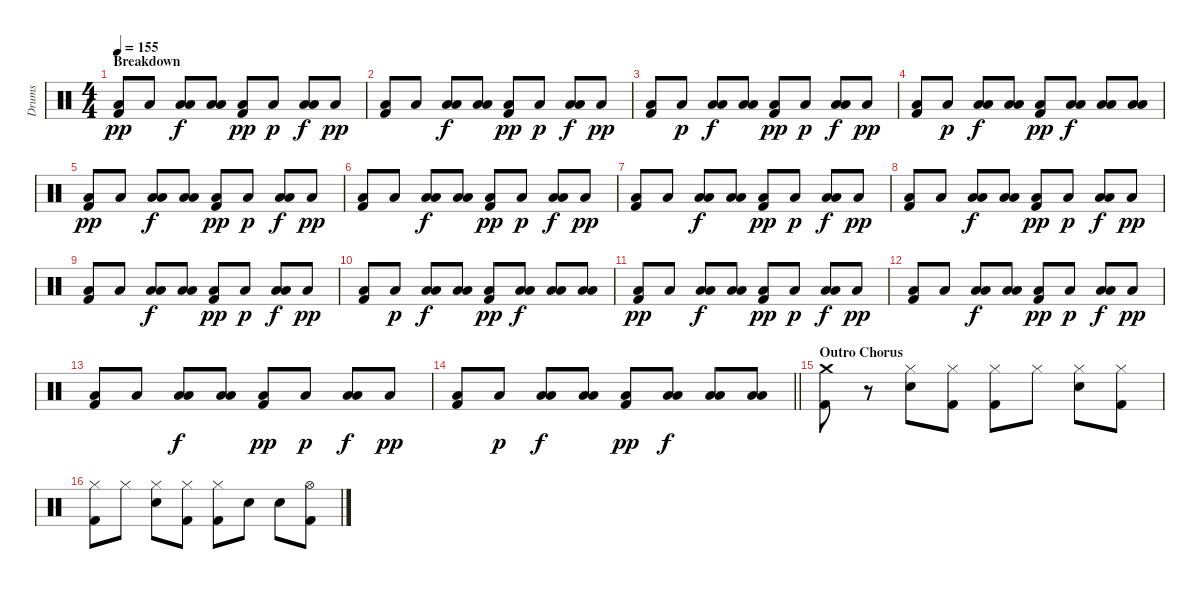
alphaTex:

\track ("Drums" "Drums") {instrument percussion}
\staff {score}
\articulation defaults
\ts (4 4)
\section ("" "Breakdown")
\tempo 155
\clef neutral
\ks c
("Low Floor Tom (hit)" "Kick (hit) 2").8{dy pp} "Low Floor Tom (hit)".8 ("Low Tom (hit)" "Low Floor Tom (hit)").8{dy f} ("Low Tom (hit)" "Low Floor Tom (hit)").8 ("Low Floor Tom (hit)" "Kick (hit) 2").8{dy pp} "Low Floor Tom (hit)".8{dy p} ("Low Tom (hit)" "Low Floor Tom (hit)").8{dy f} "Low Floor Tom (hit)".8{dy pp} |
("Low Floor Tom (hit)" "Kick (hit) 2").8 "Low Floor Tom (hit)".8 ("Low Tom (hit)" "Low Floor Tom (hit)").8{dy f} ("Low Tom (hit)" "Low Floor Tom (hit)").8 ("Low Floor Tom (hit)" "Kick (hit) 2").8{dy pp} "Low Floor Tom (hit)".8{dy p} ("Low Tom (hit)" "Low Floor Tom (hit)").8{dy f} "Low Floor Tom (hit)".8{dy pp} |
("Low Floor Tom (hit)" "Kick (hit) 2").8 "Low Floor Tom (hit)".8{dy p} ("Low Tom (hit)" "Low Floor Tom (hit)").8{dy f} ("Low Tom (hit)" "Low Floor Tom (hit)").8 ("Low Floor Tom (hit)" "Kick (hit) 2").8{dy pp} "Low Floor Tom (hit)".8{dy p} ("Low Tom (hit)" "Low Floor Tom (hit)").8{dy f} "Low Floor Tom (hit)".8{dy pp} |
("Low Floor Tom (hit)" "Kick (hit) 2").8 "Low Floor Tom (hit)".8{dy p} ("Low Tom (hit)" "Low Floor Tom (hit)").8{dy f} ("Low Tom (hit)" "Low Floor Tom (hit)").8 ("Low Floor Tom (hit)" "Kick (hit) 2").8{dy pp} ("Low Tom (hit)" "Low Floor Tom (hit)").8{dy f} ("Low Tom (hit)" "Low Floor Tom (hit)").8 ("Low Tom (hit)" "Low Floor Tom (hit)").8 |
("Low Floor Tom (hit)" "Kick (hit) 2").8{dy pp} "Low Floor Tom (hit)".8 ("Low Tom (hit)" "Low Floor Tom (hit)").8{dy f} ("Low Tom (hit)" "Low Floor Tom (hit)").8 ("Low Floor Tom (hit)" "Kick (hit) 2").8{dy pp} "Low Floor Tom (hit)".8{dy p} ("Low Tom (hit)" "Low Floor Tom (hit)").8{dy f} "Low Floor Tom (hit)".8{dy pp} |
("Low Floor Tom (hit)" "Kick (hit) 2").8 "Low Floor Tom (hit)".8 ("Low Tom (hit)" "Low Floor Tom (hit)").8{dy f} ("Low Tom (hit)" "Low Floor Tom (hit)").8 ("Low Floor Tom (hit)" "Kick (hit) 2").8{dy pp} "Low Floor Tom (hit)".8{dy p} ("Low Tom (hit)" "Low Floor Tom (hit)").8{dy f} "Low Floor Tom (hit)".8{dy pp} |
("Low Floor Tom (hit)" "Kick (hit) 2").8 "Low Floor Tom (hit)".8 ("Low Tom (hit)" "Low Floor Tom (hit)").8{dy f} ("Low Tom (hit)" "Low Floor Tom (hit)").8 ("Low Floor Tom (hit)" "Kick (hit) 2").8{dy pp} "Low Floor Tom (hit)".8{dy p} ("Low Tom (hit)" "Low Floor Tom (hit)").8{dy f} "Low Floor Tom (hit)".8{dy pp} |
("Low Floor Tom (hit)" "Kick (hit) 2").8 "Low Floor Tom (hit)".8 ("Low Tom (hit)" "Low Floor Tom (hit)").8{dy f} ("Low Tom (hit)" "Low Floor Tom (hit)").8 ("Low Floor Tom (hit)" "Kick (hit) 2").8{dy pp} "Low Floor Tom (hit)".8{dy p} ("Low Tom (hit)" "Low Floor Tom (hit)").8{dy f} "Low Floor Tom (hit)".8{dy pp} |
("Low Floor Tom (hit)" "Kick (hit) 2").8 "Low Floor Tom (hit)".8 ("Low Tom (hit)" "Low Floor Tom (hit)").8{dy f} ("Low Tom (hit)" "Low Floor Tom (hit)").8 ("Low Floor Tom (hit)" "Kick (hit) 2").8{dy pp} "Low Floor Tom (hit)".8{dy p} ("Low Tom (hit)" "Low Floor Tom (hit)").8{dy f} "Low Floor Tom (hit)".8{dy pp} |
("Low Floor Tom (hit)" "Kick (hit) 2").8 "Low Floor Tom (hit)".8{dy p} ("Low Tom (hit)" "Low Floor Tom (hit)").8{dy f} ("Low Tom (hit)" "Low Floor Tom (hit)").8 ("Low Floor Tom (hit)" "Kick (hit) 2").8{dy pp} ("Low Tom (hit)" "Low Floor Tom (hit)").8{dy f} ("Low Tom (hit)" "Low Floor Tom (hit)").8 ("Low Tom (hit)" "Low Floor Tom (hit)").8 |
("Low Floor Tom (hit)" "Kick (hit) 2").8{dy pp} "Low Floor Tom (hit)".8 ("Low Tom (hit)" "Low Floor Tom (hit)").8{dy f} ("Low Tom (hit)" "Low Floor Tom (hit)").8 ("Low Floor Tom (hit)" "Kick (hit) 2").8{dy pp} "Low Floor Tom (hit)".8{dy p} ("Low Tom (hit)" "Low Floor Tom (hit)").8{dy f} "Low Floor Tom (hit)".8{dy pp} |
("Low Floor Tom (hit)" "Kick (hit) 2").8 "Low Floor Tom (hit)".8 ("Low Tom (hit)" "Low Floor Tom (hit)").8{dy f} ("Low Tom (hit)" "Low Floor Tom (hit)").8 ("Low Floor Tom (hit)" "Kick (hit) 2").8{dy pp} "Low Floor Tom (hit)".8{dy p} ("Low Tom (hit)" "Low Floor Tom (hit)").8{dy f} "Low Floor Tom (hit)".8{dy pp} |
("Low Floor Tom (hit)" "Kick (hit) 2").8 "Low Floor Tom (hit)".8 ("Low Tom (hit)" "Low Floor Tom (hit)").8{dy f} ("Low Tom (hit)" "Low Floor Tom (hit)").8 ("Low Floor Tom (hit)" "Kick (hit) 2").8{dy pp} "Low Floor Tom (hit)".8{dy p} ("Low Tom (hit)" "Low Floor Tom (hit)").8{dy f} "Low Floor Tom (hit)".8{dy pp} |
\barLineRight lightlight
("Low Floor Tom (hit)" "Kick (hit) 2").8 "Low Floor Tom (hit)".8{dy p} ("Low Tom (hit)" "Low Floor Tom (hit)").8{dy f} ("Low Tom (hit)" "Low Floor Tom (hit)").8 ("Low Floor Tom (hit)" "Kick (hit) 2").8{dy pp} ("Low Tom (hit)" "Low Floor Tom (hit)").8{dy f} ("Low Tom (hit)" "Low Floor Tom (hit)").8 ("Low Tom (hit)" "Low Floor Tom (hit)").8 |
\section ("" "Outro Chorus")
("Crash medium (hit)" "Kick (hit) 2").8 r.8 ("Hi-Hat (closed)" "Snare (hit) 2").8 ("Hi-Hat (closed)" "Kick (hit) 2").8 ("Hi-Hat (closed)" "Kick (hit) 2").8 "Hi-Hat (closed)".8 ("Hi-Hat (closed)" "Snare (hit) 2").8 ("Hi-Hat (closed)" "Kick (hit) 2").8 |
("Hi-Hat (closed)" "Kick (hit) 2").8 "Hi-Hat (closed)".8 ("Hi-Hat (closed)" "Snare (hit) 2").8 ("Hi-Hat (closed)" "Kick (hit) 2").8 ("Hi-Hat (closed)" "Kick (hit) 2").8 "Snare (hit) 2".8 "Snare (hit) 2".8 ("Hi-Hat (open)" "Kick (hit) 2").8
